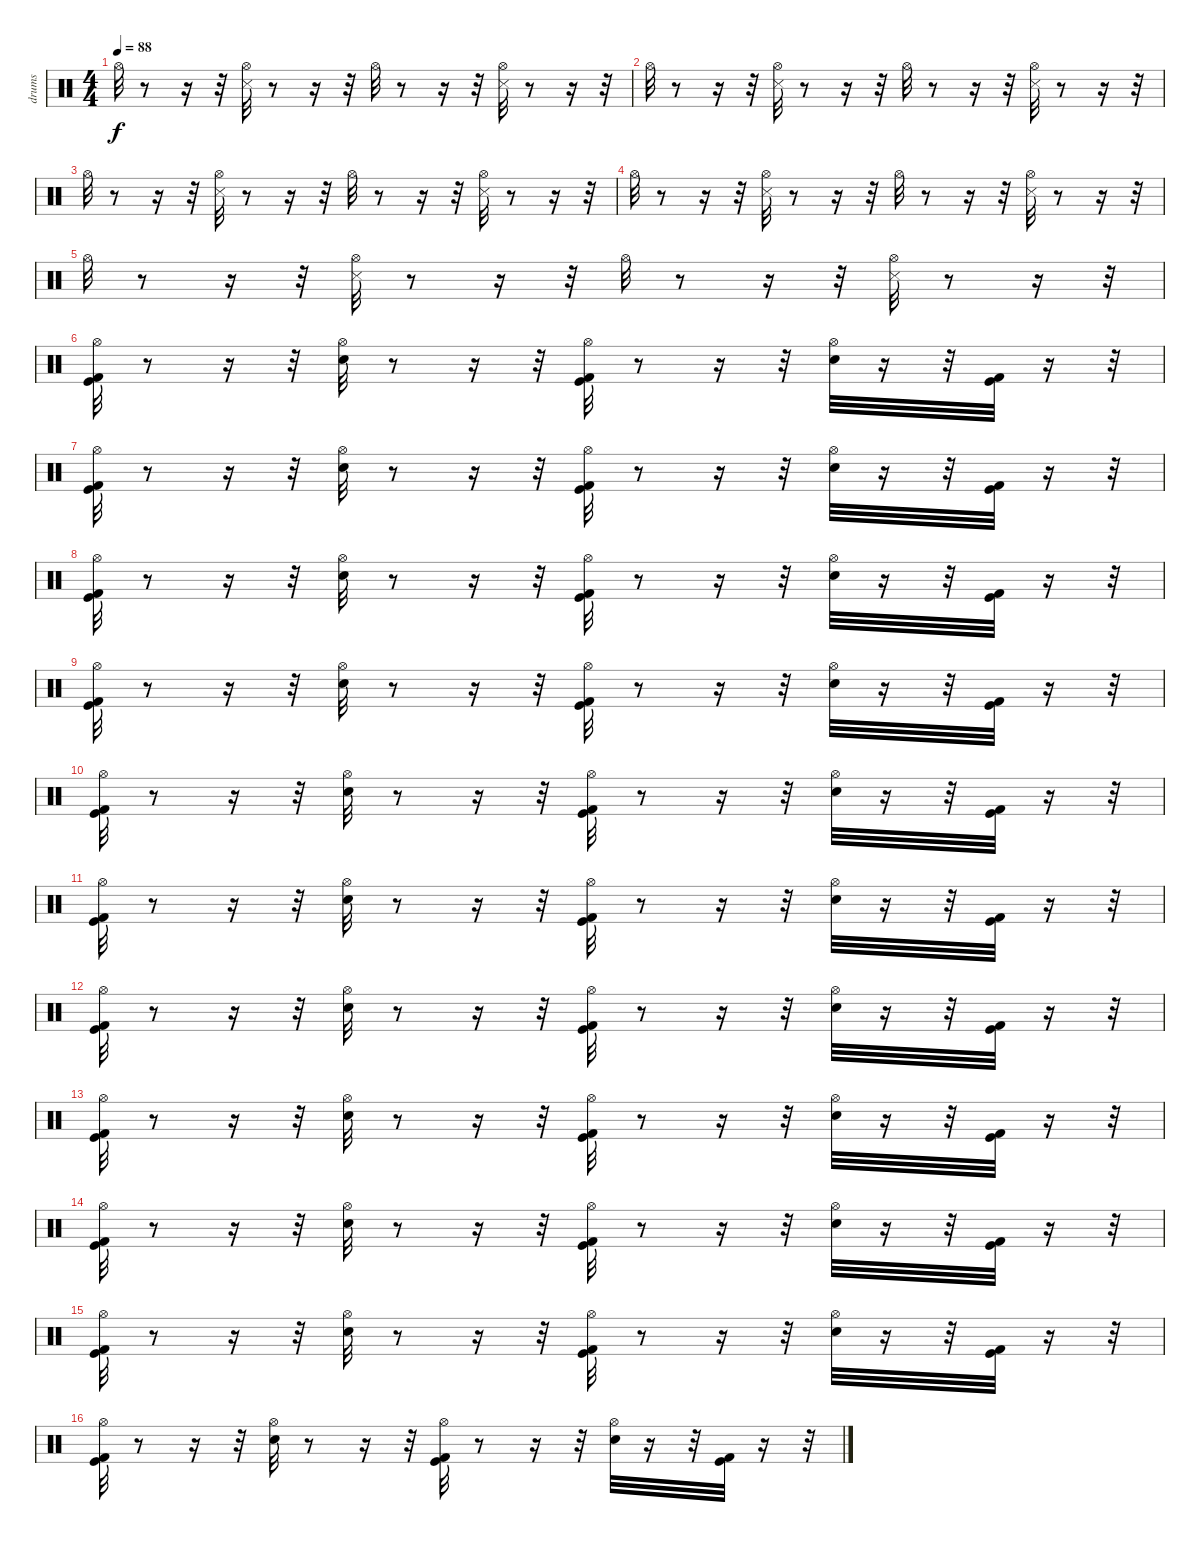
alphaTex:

\track ("drums" "drums") {instrument percussion}
\staff {score}
\articulation defaults
\ts (4 4)
\tempo 88
\clef neutral
\ks c "Hi-Hat (open)".32{dy f}
r.8 r.16 r.32 ("Snare (side stick) 3" "Hi-Hat (open)").32 r.8 r.16 r.32 "Hi-Hat (open)".32 r.8 r.16 r.32 ("Snare (side stick) 3" "Hi-Hat (open)").32 r.8 r.16 r.32 |
"Hi-Hat (open)".32 r.8 r.16 r.32 ("Snare (side stick) 3" "Hi-Hat (open)").32 r.8 r.16 r.32 "Hi-Hat (open)".32 r.8 r.16 r.32 ("Snare (side stick) 3" "Hi-Hat (open)").32 r.8 r.16 r.32 |
"Hi-Hat (open)".32 r.8 r.16 r.32 ("Snare (side stick) 3" "Hi-Hat (open)").32 r.8 r.16 r.32 "Hi-Hat (open)".32 r.8 r.16 r.32 ("Snare (side stick) 3" "Hi-Hat (open)").32 r.8 r.16 r.32 |
"Hi-Hat (open)".32 r.8 r.16 r.32 ("Snare (side stick) 3" "Hi-Hat (open)").32 r.8 r.16 r.32 "Hi-Hat (open)".32 r.8 r.16 r.32 ("Snare (side stick) 3" "Hi-Hat (open)").32 r.8 r.16 r.32 |
"Hi-Hat (open)".32 r.8 r.16 r.32 ("Snare (side stick) 3" "Hi-Hat (open)").32 r.8 r.16 r.32 "Hi-Hat (open)".32 r.8 r.16 r.32 ("Snare (side stick) 3" "Hi-Hat (open)").32 r.8 r.16 r.32 |
("Kick (hit) 2" "Kick (hit)" "Hi-Hat (open)").32 r.8 r.16 r.32 ("Snare (hit) 2" "Hi-Hat (open)").32 r.8 r.16 r.32 ("Kick (hit)" "Kick (hit) 2" "Hi-Hat (open)").32 r.8 r.16 r.32 ("Snare (hit) 2" "Hi-Hat (open)").32 r.16 r.32 ("Kick (hit)" "Kick (hit) 2").32 r.16 r.32 |
("Kick (hit)" "Kick (hit) 2" "Hi-Hat (open)").32 r.8 r.16 r.32 ("Snare (hit) 2" "Hi-Hat (open)").32 r.8 r.16 r.32 ("Kick (hit)" "Kick (hit) 2" "Hi-Hat (open)").32 r.8 r.16 r.32 ("Snare (hit) 2" "Hi-Hat (open)").32 r.16 r.32 ("Kick (hit)" "Kick (hit) 2").32 r.16 r.32 |
("Kick (hit) 2" "Kick (hit)" "Hi-Hat (open)").32 r.8 r.16 r.32 ("Snare (hit) 2" "Hi-Hat (open)").32 r.8 r.16 r.32 ("Kick (hit)" "Kick (hit) 2" "Hi-Hat (open)").32 r.8 r.16 r.32 ("Snare (hit) 2" "Hi-Hat (open)").32 r.16 r.32 ("Kick (hit)" "Kick (hit) 2").32 r.16 r.32 |
("Kick (hit) 2" "Kick (hit)" "Hi-Hat (open)").32 r.8 r.16 r.32 ("Snare (hit) 2" "Hi-Hat (open)").32 r.8 r.16 r.32 ("Kick (hit)" "Kick (hit) 2" "Hi-Hat (open)").32 r.8 r.16 r.32 ("Snare (hit) 2" "Hi-Hat (open)").32 r.16 r.32 ("Kick (hit)" "Kick (hit) 2").32 r.16 r.32 |
("Kick (hit) 2" "Kick (hit)" "Hi-Hat (open)").32 r.8 r.16 r.32 ("Snare (hit) 2" "Hi-Hat (open)").32 r.8 r.16 r.32 ("Kick (hit)" "Kick (hit) 2" "Hi-Hat (open)").32 r.8 r.16 r.32 ("Snare (hit) 2" "Hi-Hat (open)").32 r.16 r.32 ("Kick (hit)" "Kick (hit) 2").32 r.16 r.32 |
("Kick (hit) 2" "Kick (hit)" "Hi-Hat (open)").32 r.8 r.16 r.32 ("Snare (hit) 2" "Hi-Hat (open)").32 r.8 r.16 r.32 ("Kick (hit)" "Kick (hit) 2" "Hi-Hat (open)").32 r.8 r.16 r.32 ("Snare (hit) 2" "Hi-Hat (open)").32 r.16 r.32 ("Kick (hit)" "Kick (hit) 2").32 r.16 r.32 |
("Kick (hit) 2" "Kick (hit)" "Hi-Hat (open)").32 r.8 r.16 r.32 ("Snare (hit) 2" "Hi-Hat (open)").32 r.8 r.16 r.32 ("Kick (hit)" "Kick (hit) 2" "Hi-Hat (open)").32 r.8 r.16 r.32 ("Snare (hit) 2" "Hi-Hat (open)").32 r.16 r.32 ("Kick (hit)" "Kick (hit) 2").32 r.16 r.32 |
("Kick (hit) 2" "Kick (hit)" "Hi-Hat (open)").32 r.8 r.16 r.32 ("Snare (hit) 2" "Hi-Hat (open)").32 r.8 r.16 r.32 ("Kick (hit)" "Kick (hit) 2" "Hi-Hat (open)").32 r.8 r.16 r.32 ("Snare (hit) 2" "Hi-Hat (open)").32 r.16 r.32 ("Kick (hit)" "Kick (hit) 2").32 r.16 r.32 |
("Kick (hit) 2" "Kick (hit)" "Hi-Hat (open)").32 r.8 r.16 r.32 ("Snare (hit) 2" "Hi-Hat (open)").32 r.8 r.16 r.32 ("Kick (hit)" "Kick (hit) 2" "Hi-Hat (open)").32 r.8 r.16 r.32 ("Snare (hit) 2" "Hi-Hat (open)").32 r.16 r.32 ("Kick (hit)" "Kick (hit) 2").32 r.16 r.32 |
("Kick (hit) 2" "Kick (hit)" "Hi-Hat (open)").32 r.8 r.16 r.32 ("Snare (hit) 2" "Hi-Hat (open)").32 r.8 r.16 r.32 ("Kick (hit)" "Kick (hit) 2" "Hi-Hat (open)").32 r.8 r.16 r.32 ("Snare (hit) 2" "Hi-Hat (open)").32 r.16 r.32 ("Kick (hit)" "Kick (hit) 2").32 r.16 r.32 |
("Kick (hit) 2" "Kick (hit)" "Hi-Hat (open)").32 r.8 r.16 r.32 ("Snare (hit) 2" "Hi-Hat (open)").32 r.8 r.16 r.32 ("Kick (hit)" "Kick (hit) 2" "Hi-Hat (open)").32 r.8 r.16 r.32 ("Snare (hit) 2" "Hi-Hat (open)").32 r.16 r.32 ("Kick (hit)" "Kick (hit) 2").32 r.16 r.32
